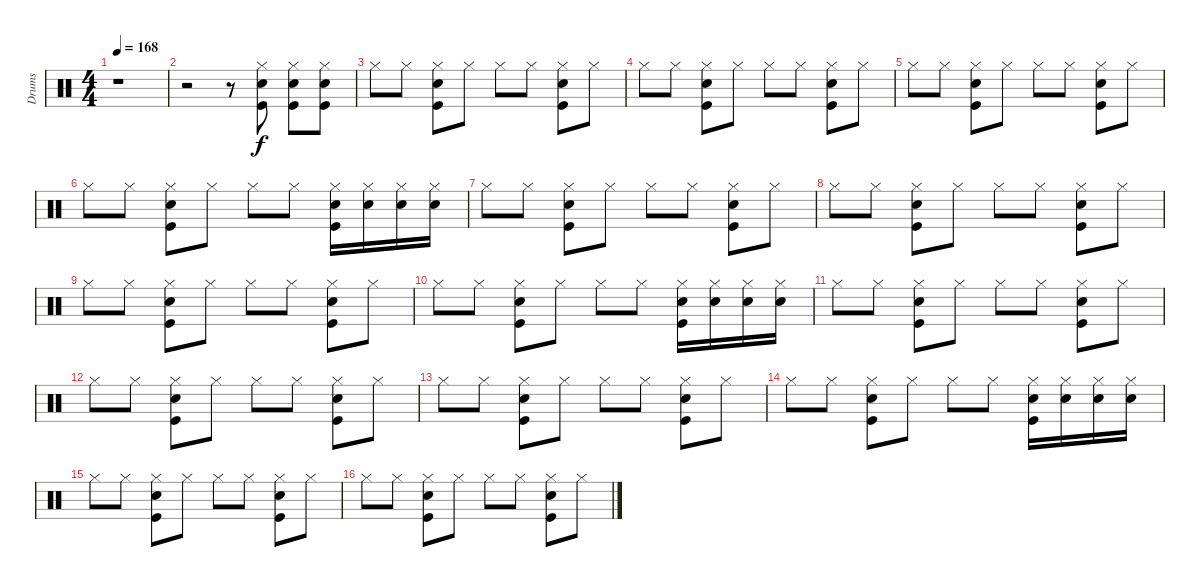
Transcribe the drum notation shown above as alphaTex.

\track ("Drums" "Drums") {instrument percussion}
\staff {score}
\articulation defaults
\ts (4 4)
\tempo 168
\clef neutral
\ks c
r.1{dy f} |
r.2 r.8 ("Snare (hit) 2" "Kick (hit)" "Hi-Hat (closed)").8 ("Kick (hit)" "Snare (hit) 2" "Hi-Hat (closed)").8 ("Kick (hit)" "Snare (hit) 2" "Hi-Hat (closed)").8 |
"Hi-Hat (closed)".8 "Hi-Hat (closed)".8 ("Snare (hit) 2" "Kick (hit)" "Hi-Hat (closed)").8 "Hi-Hat (closed)".8 "Hi-Hat (closed)".8 "Hi-Hat (closed)".8 ("Snare (hit) 2" "Kick (hit)" "Hi-Hat (closed)").8 "Hi-Hat (closed)".8 |
"Hi-Hat (closed)".8 "Hi-Hat (closed)".8 ("Snare (hit) 2" "Kick (hit)" "Hi-Hat (closed)").8 "Hi-Hat (closed)".8 "Hi-Hat (closed)".8 "Hi-Hat (closed)".8 ("Snare (hit) 2" "Kick (hit)" "Hi-Hat (closed)").8 "Hi-Hat (closed)".8 |
"Hi-Hat (closed)".8 "Hi-Hat (closed)".8 ("Snare (hit) 2" "Kick (hit)" "Hi-Hat (closed)").8 "Hi-Hat (closed)".8 "Hi-Hat (closed)".8 "Hi-Hat (closed)".8 ("Snare (hit) 2" "Kick (hit)" "Hi-Hat (closed)").8 "Hi-Hat (closed)".8 |
"Hi-Hat (closed)".8 "Hi-Hat (closed)".8 ("Snare (hit) 2" "Kick (hit)" "Hi-Hat (closed)").8 "Hi-Hat (closed)".8 "Hi-Hat (closed)".8 "Hi-Hat (closed)".8 ("Snare (hit) 2" "Kick (hit)" "Hi-Hat (closed)").16 ("Hi-Hat (closed)" "Snare (hit) 2").16 ("Hi-Hat (closed)" "Snare (hit) 2").16 ("Snare (hit) 2" "Hi-Hat (closed)").16 |
"Hi-Hat (closed)".8 "Hi-Hat (closed)".8 ("Snare (hit) 2" "Kick (hit)" "Hi-Hat (closed)").8 "Hi-Hat (closed)".8 "Hi-Hat (closed)".8 "Hi-Hat (closed)".8 ("Snare (hit) 2" "Kick (hit)" "Hi-Hat (closed)").8 "Hi-Hat (closed)".8 |
"Hi-Hat (closed)".8 "Hi-Hat (closed)".8 ("Snare (hit) 2" "Kick (hit)" "Hi-Hat (closed)").8 "Hi-Hat (closed)".8 "Hi-Hat (closed)".8 "Hi-Hat (closed)".8 ("Snare (hit) 2" "Kick (hit)" "Hi-Hat (closed)").8 "Hi-Hat (closed)".8 |
"Hi-Hat (closed)".8 "Hi-Hat (closed)".8 ("Snare (hit) 2" "Kick (hit)" "Hi-Hat (closed)").8 "Hi-Hat (closed)".8 "Hi-Hat (closed)".8 "Hi-Hat (closed)".8 ("Snare (hit) 2" "Kick (hit)" "Hi-Hat (closed)").8 "Hi-Hat (closed)".8 |
"Hi-Hat (closed)".8 "Hi-Hat (closed)".8 ("Snare (hit) 2" "Kick (hit)" "Hi-Hat (closed)").8 "Hi-Hat (closed)".8 "Hi-Hat (closed)".8 "Hi-Hat (closed)".8 ("Snare (hit) 2" "Kick (hit)" "Hi-Hat (closed)").16 ("Hi-Hat (closed)" "Snare (hit) 2").16 ("Hi-Hat (closed)" "Snare (hit) 2").16 ("Snare (hit) 2" "Hi-Hat (closed)").16 |
"Hi-Hat (closed)".8 "Hi-Hat (closed)".8 ("Snare (hit) 2" "Kick (hit)" "Hi-Hat (closed)").8 "Hi-Hat (closed)".8 "Hi-Hat (closed)".8 "Hi-Hat (closed)".8 ("Snare (hit) 2" "Kick (hit)" "Hi-Hat (closed)").8 "Hi-Hat (closed)".8 |
"Hi-Hat (closed)".8 "Hi-Hat (closed)".8 ("Snare (hit) 2" "Kick (hit)" "Hi-Hat (closed)").8 "Hi-Hat (closed)".8 "Hi-Hat (closed)".8 "Hi-Hat (closed)".8 ("Snare (hit) 2" "Kick (hit)" "Hi-Hat (closed)").8 "Hi-Hat (closed)".8 |
"Hi-Hat (closed)".8 "Hi-Hat (closed)".8 ("Snare (hit) 2" "Kick (hit)" "Hi-Hat (closed)").8 "Hi-Hat (closed)".8 "Hi-Hat (closed)".8 "Hi-Hat (closed)".8 ("Snare (hit) 2" "Kick (hit)" "Hi-Hat (closed)").8 "Hi-Hat (closed)".8 |
"Hi-Hat (closed)".8 "Hi-Hat (closed)".8 ("Snare (hit) 2" "Kick (hit)" "Hi-Hat (closed)").8 "Hi-Hat (closed)".8 "Hi-Hat (closed)".8 "Hi-Hat (closed)".8 ("Snare (hit) 2" "Kick (hit)" "Hi-Hat (closed)").16 ("Hi-Hat (closed)" "Snare (hit) 2").16 ("Hi-Hat (closed)" "Snare (hit) 2").16 ("Snare (hit) 2" "Hi-Hat (closed)").16 |
"Hi-Hat (closed)".8 "Hi-Hat (closed)".8 ("Snare (hit) 2" "Kick (hit)" "Hi-Hat (closed)").8 "Hi-Hat (closed)".8 "Hi-Hat (closed)".8 "Hi-Hat (closed)".8 ("Snare (hit) 2" "Kick (hit)" "Hi-Hat (closed)").8 "Hi-Hat (closed)".8 |
"Hi-Hat (closed)".8 "Hi-Hat (closed)".8 ("Snare (hit) 2" "Kick (hit)" "Hi-Hat (closed)").8 "Hi-Hat (closed)".8 "Hi-Hat (closed)".8 "Hi-Hat (closed)".8 ("Snare (hit) 2" "Kick (hit)" "Hi-Hat (closed)").8 "Hi-Hat (closed)".8
